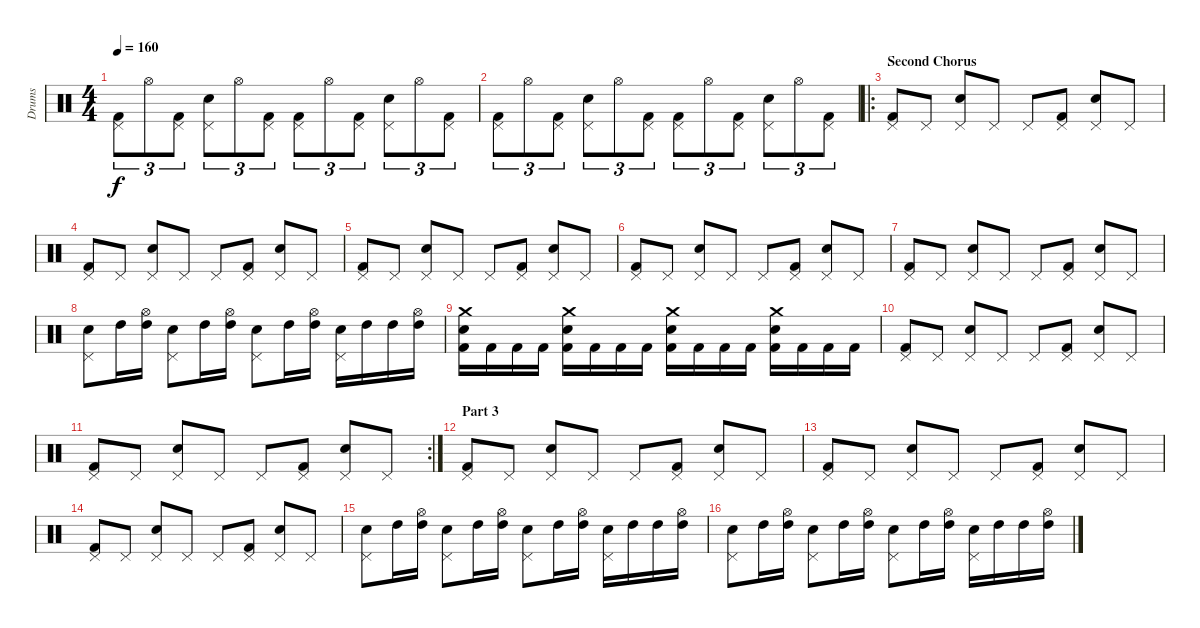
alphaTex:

\track ("Drums" "Drums") {instrument percussion}
\staff {score}
\articulation defaults
\ts (4 4)
\tempo 160
\clef neutral
\ks c
("Pedal Hi-Hat (hit)" "Kick (hit) 2").8{tu (3 2) dy f} "Hi-Hat (open)".8{tu (3 2)} ("Pedal Hi-Hat (hit)" "Kick (hit) 2").8{tu (3 2)} ("Pedal Hi-Hat (hit)" "Electric Snare (hit)").8{tu (3 2)} "Hi-Hat (open)".8{tu (3 2)} ("Pedal Hi-Hat (hit)" "Kick (hit) 2").8{tu (3 2)} ("Pedal Hi-Hat (hit)" "Kick (hit) 2").8{tu (3 2)} "Hi-Hat (open)".8{tu (3 2)} ("Pedal Hi-Hat (hit)" "Kick (hit) 2").8{tu (3 2)} ("Pedal Hi-Hat (hit)" "Electric Snare (hit)").8{tu (3 2)} "Hi-Hat (open)".8{tu (3 2)} ("Pedal Hi-Hat (hit)" "Kick (hit) 2").8{tu (3 2)} |
("Pedal Hi-Hat (hit)" "Kick (hit) 2").8{tu (3 2)} "Hi-Hat (open)".8{tu (3 2)} ("Pedal Hi-Hat (hit)" "Kick (hit) 2").8{tu (3 2)} ("Pedal Hi-Hat (hit)" "Electric Snare (hit)").8{tu (3 2)} "Hi-Hat (open)".8{tu (3 2)} ("Pedal Hi-Hat (hit)" "Kick (hit) 2").8{tu (3 2)} ("Pedal Hi-Hat (hit)" "Kick (hit) 2").8{tu (3 2)} "Hi-Hat (open)".8{tu (3 2)} ("Pedal Hi-Hat (hit)" "Kick (hit) 2").8{tu (3 2)} ("Pedal Hi-Hat (hit)" "Electric Snare (hit)").8{tu (3 2)} "Hi-Hat (open)".8{tu (3 2)} ("Pedal Hi-Hat (hit)" "Kick (hit) 2").8{tu (3 2)} |
\ro
\section ("" "Second Chorus")
("Pedal Hi-Hat (hit)" "Kick (hit) 2").8 "Pedal Hi-Hat (hit)".8 ("Pedal Hi-Hat (hit)" "Electric Snare (hit)").8 "Pedal Hi-Hat (hit)".8 "Pedal Hi-Hat (hit)".8 ("Pedal Hi-Hat (hit)" "Kick (hit) 2").8 ("Pedal Hi-Hat (hit)" "Electric Snare (hit)").8 "Pedal Hi-Hat (hit)".8 |
("Pedal Hi-Hat (hit)" "Kick (hit) 2").8 "Pedal Hi-Hat (hit)".8 ("Pedal Hi-Hat (hit)" "Electric Snare (hit)").8 "Pedal Hi-Hat (hit)".8 "Pedal Hi-Hat (hit)".8 ("Pedal Hi-Hat (hit)" "Kick (hit) 2").8 ("Pedal Hi-Hat (hit)" "Electric Snare (hit)").8 "Pedal Hi-Hat (hit)".8 |
("Pedal Hi-Hat (hit)" "Kick (hit) 2").8 "Pedal Hi-Hat (hit)".8 ("Pedal Hi-Hat (hit)" "Electric Snare (hit)").8 "Pedal Hi-Hat (hit)".8 "Pedal Hi-Hat (hit)".8 ("Pedal Hi-Hat (hit)" "Kick (hit) 2").8 ("Pedal Hi-Hat (hit)" "Electric Snare (hit)").8 "Pedal Hi-Hat (hit)".8 |
("Pedal Hi-Hat (hit)" "Kick (hit) 2").8 "Pedal Hi-Hat (hit)".8 ("Pedal Hi-Hat (hit)" "Electric Snare (hit)").8 "Pedal Hi-Hat (hit)".8 "Pedal Hi-Hat (hit)".8 ("Pedal Hi-Hat (hit)" "Kick (hit) 2").8 ("Pedal Hi-Hat (hit)" "Electric Snare (hit)").8 "Pedal Hi-Hat (hit)".8 |
("Pedal Hi-Hat (hit)" "Kick (hit) 2").8 "Pedal Hi-Hat (hit)".8 ("Pedal Hi-Hat (hit)" "Electric Snare (hit)").8 "Pedal Hi-Hat (hit)".8 "Pedal Hi-Hat (hit)".8 ("Pedal Hi-Hat (hit)" "Kick (hit) 2").8 ("Pedal Hi-Hat (hit)" "Electric Snare (hit)").8 "Pedal Hi-Hat (hit)".8 |
("Pedal Hi-Hat (hit)" "Electric Snare (hit)").8 "High Tom (hit)".16 ("Hi-Hat (open)" "High Tom (hit)").16 ("Pedal Hi-Hat (hit)" "Electric Snare (hit)").8 "High Tom (hit)".16 ("Hi-Hat (open)" "High Tom (hit)").16 ("Pedal Hi-Hat (hit)" "Electric Snare (hit)").8 "High Tom (hit)".16 ("Hi-Hat (open)" "High Tom (hit)").16 ("Pedal Hi-Hat (hit)" "Electric Snare (hit)").16 "High Tom (hit)".16 "High Tom (hit)".16 ("Hi-Hat (open)" "High Tom (hit)").16 |
("Crash medium (hit)" "Electric Snare (hit)" "Kick (hit) 2").16 "Kick (hit) 2".16 "Kick (hit) 2".16 "Kick (hit) 2".16 ("Crash medium (hit)" "Electric Snare (hit)" "Kick (hit) 2").16 "Kick (hit) 2".16 "Kick (hit) 2".16 "Kick (hit) 2".16 ("Crash medium (hit)" "Electric Snare (hit)" "Kick (hit) 2").16 "Kick (hit) 2".16 "Kick (hit) 2".16 "Kick (hit) 2".16 ("Crash medium (hit)" "Electric Snare (hit)" "Kick (hit) 2").16 "Kick (hit) 2".16 "Kick (hit) 2".16 "Kick (hit) 2".16 |
("Pedal Hi-Hat (hit)" "Kick (hit) 2").8 "Pedal Hi-Hat (hit)".8 ("Pedal Hi-Hat (hit)" "Electric Snare (hit)").8 "Pedal Hi-Hat (hit)".8 "Pedal Hi-Hat (hit)".8 ("Pedal Hi-Hat (hit)" "Kick (hit) 2").8 ("Pedal Hi-Hat (hit)" "Electric Snare (hit)").8 "Pedal Hi-Hat (hit)".8 |
\rc 2
("Pedal Hi-Hat (hit)" "Kick (hit) 2").8 "Pedal Hi-Hat (hit)".8 ("Pedal Hi-Hat (hit)" "Electric Snare (hit)").8 "Pedal Hi-Hat (hit)".8 "Pedal Hi-Hat (hit)".8 ("Pedal Hi-Hat (hit)" "Kick (hit) 2").8 ("Pedal Hi-Hat (hit)" "Electric Snare (hit)").8 "Pedal Hi-Hat (hit)".8 |
\section ("" "Part 3")
("Pedal Hi-Hat (hit)" "Kick (hit) 2").8 "Pedal Hi-Hat (hit)".8 ("Pedal Hi-Hat (hit)" "Electric Snare (hit)").8 "Pedal Hi-Hat (hit)".8 "Pedal Hi-Hat (hit)".8 ("Pedal Hi-Hat (hit)" "Kick (hit) 2").8 ("Pedal Hi-Hat (hit)" "Electric Snare (hit)").8 "Pedal Hi-Hat (hit)".8 |
("Pedal Hi-Hat (hit)" "Kick (hit) 2").8 "Pedal Hi-Hat (hit)".8 ("Pedal Hi-Hat (hit)" "Electric Snare (hit)").8 "Pedal Hi-Hat (hit)".8 "Pedal Hi-Hat (hit)".8 ("Pedal Hi-Hat (hit)" "Kick (hit) 2").8 ("Pedal Hi-Hat (hit)" "Electric Snare (hit)").8 "Pedal Hi-Hat (hit)".8 |
("Pedal Hi-Hat (hit)" "Kick (hit) 2").8 "Pedal Hi-Hat (hit)".8 ("Pedal Hi-Hat (hit)" "Electric Snare (hit)").8 "Pedal Hi-Hat (hit)".8 "Pedal Hi-Hat (hit)".8 ("Pedal Hi-Hat (hit)" "Kick (hit) 2").8 ("Pedal Hi-Hat (hit)" "Electric Snare (hit)").8 "Pedal Hi-Hat (hit)".8 |
("Pedal Hi-Hat (hit)" "Electric Snare (hit)").8 "High Tom (hit)".16 ("Hi-Hat (open)" "High Tom (hit)").16 ("Pedal Hi-Hat (hit)" "Electric Snare (hit)").8 "High Tom (hit)".16 ("Hi-Hat (open)" "High Tom (hit)").16 ("Pedal Hi-Hat (hit)" "Electric Snare (hit)").8 "High Tom (hit)".16 ("Hi-Hat (open)" "High Tom (hit)").16 ("Pedal Hi-Hat (hit)" "Electric Snare (hit)").16 "High Tom (hit)".16 "High Tom (hit)".16 ("Hi-Hat (open)" "High Tom (hit)").16 |
("Pedal Hi-Hat (hit)" "Electric Snare (hit)").8 "High Tom (hit)".16 ("Hi-Hat (open)" "High Tom (hit)").16 ("Pedal Hi-Hat (hit)" "Electric Snare (hit)").8 "High Tom (hit)".16 ("Hi-Hat (open)" "High Tom (hit)").16 ("Pedal Hi-Hat (hit)" "Electric Snare (hit)").8 "High Tom (hit)".16 ("Hi-Hat (open)" "High Tom (hit)").16 ("Pedal Hi-Hat (hit)" "Electric Snare (hit)").16 "High Tom (hit)".16 "High Tom (hit)".16 ("Hi-Hat (open)" "High Tom (hit)").16
